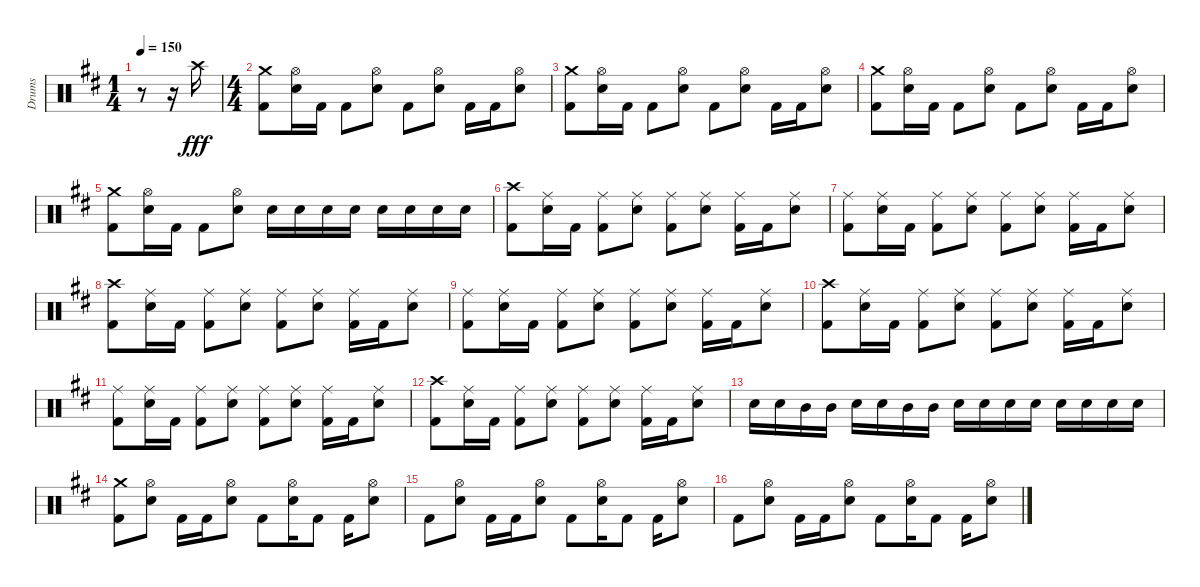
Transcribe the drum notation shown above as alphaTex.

\track ("Drums" "Drums") {instrument percussion}
\staff {score}
\articulation defaults
\ts (1 4)
\tempo 150
\clef neutral
\ks d
r.8{dy fff} r.16 "Crash high (hit)".16 |
\ts (4 4)
("Crash medium (hit)" "Kick (hit) 2").8 ("Hi-Hat (open)" "Electric Snare (hit)").16 "Kick (hit) 2".16 "Kick (hit) 2".8 ("Hi-Hat (open)" "Electric Snare (hit)").8 "Kick (hit) 2".8 ("Hi-Hat (open)" "Electric Snare (hit)").8 "Kick (hit) 2".16 "Kick (hit) 2".16 ("Hi-Hat (open)" "Electric Snare (hit)").8 |
("Crash medium (hit)" "Kick (hit) 2").8 ("Hi-Hat (open)" "Electric Snare (hit)").16 "Kick (hit) 2".16 "Kick (hit) 2".8 ("Hi-Hat (open)" "Electric Snare (hit)").8 "Kick (hit) 2".8 ("Hi-Hat (open)" "Electric Snare (hit)").8 "Kick (hit) 2".16 "Kick (hit) 2".16 ("Hi-Hat (open)" "Electric Snare (hit)").8 |
("Crash medium (hit)" "Kick (hit) 2").8 ("Hi-Hat (open)" "Electric Snare (hit)").16 "Kick (hit) 2".16 "Kick (hit) 2".8 ("Hi-Hat (open)" "Electric Snare (hit)").8 "Kick (hit) 2".8 ("Hi-Hat (open)" "Electric Snare (hit)").8 "Kick (hit) 2".16 "Kick (hit) 2".16 ("Hi-Hat (open)" "Electric Snare (hit)").8 |
("Crash medium (hit)" "Kick (hit) 2").8 ("Hi-Hat (open)" "Electric Snare (hit)").16 "Kick (hit) 2".16 "Kick (hit) 2".8 ("Hi-Hat (open)" "Electric Snare (hit)").8 "Electric Snare (hit)".16 "Electric Snare (hit)".16 "Electric Snare (hit)".16 "Electric Snare (hit)".16 "Electric Snare (hit)".16 "Electric Snare (hit)".16 "Electric Snare (hit)".16 "Electric Snare (hit)".16 |
("Crash high (hit)" "Kick (hit) 2").8 ("Ride (middle)" "Electric Snare (hit)").16 "Kick (hit) 2".16 ("Ride (middle)" "Kick (hit) 2").8 ("Ride (middle)" "Electric Snare (hit)").8 ("Ride (middle)" "Kick (hit) 2").8 ("Ride (middle)" "Electric Snare (hit)").8 ("Ride (middle)" "Kick (hit) 2").16 "Kick (hit) 2".16 ("Ride (middle)" "Electric Snare (hit)").8 |
("Ride (middle)" "Kick (hit) 2").8 ("Ride (middle)" "Electric Snare (hit)").16 "Kick (hit) 2".16 ("Ride (middle)" "Kick (hit) 2").8 ("Ride (middle)" "Electric Snare (hit)").8 ("Ride (middle)" "Kick (hit) 2").8 ("Ride (middle)" "Electric Snare (hit)").8 ("Ride (middle)" "Kick (hit) 2").16 "Kick (hit) 2".16 ("Ride (middle)" "Electric Snare (hit)").8 |
("Crash high (hit)" "Kick (hit) 2").8 ("Ride (middle)" "Electric Snare (hit)").16 "Kick (hit) 2".16 ("Ride (middle)" "Kick (hit) 2").8 ("Ride (middle)" "Electric Snare (hit)").8 ("Ride (middle)" "Kick (hit) 2").8 ("Ride (middle)" "Electric Snare (hit)").8 ("Ride (middle)" "Kick (hit) 2").16 "Kick (hit) 2".16 ("Ride (middle)" "Electric Snare (hit)").8 |
("Ride (middle)" "Kick (hit) 2").8 ("Ride (middle)" "Electric Snare (hit)").16 "Kick (hit) 2".16 ("Ride (middle)" "Kick (hit) 2").8 ("Ride (middle)" "Electric Snare (hit)").8 ("Ride (middle)" "Kick (hit) 2").8 ("Ride (middle)" "Electric Snare (hit)").8 ("Ride (middle)" "Kick (hit) 2").16 "Kick (hit) 2".16 ("Ride (middle)" "Electric Snare (hit)").8 |
("Crash high (hit)" "Kick (hit) 2").8 ("Ride (middle)" "Electric Snare (hit)").16 "Kick (hit) 2".16 ("Ride (middle)" "Kick (hit) 2").8 ("Ride (middle)" "Electric Snare (hit)").8 ("Ride (middle)" "Kick (hit) 2").8 ("Ride (middle)" "Electric Snare (hit)").8 ("Ride (middle)" "Kick (hit) 2").16 "Kick (hit) 2".16 ("Ride (middle)" "Electric Snare (hit)").8 |
("Ride (middle)" "Kick (hit) 2").8 ("Ride (middle)" "Electric Snare (hit)").16 "Kick (hit) 2".16 ("Ride (middle)" "Kick (hit) 2").8 ("Ride (middle)" "Electric Snare (hit)").8 ("Ride (middle)" "Kick (hit) 2").8 ("Ride (middle)" "Electric Snare (hit)").8 ("Ride (middle)" "Kick (hit) 2").16 "Kick (hit) 2".16 ("Ride (middle)" "Electric Snare (hit)").8 |
("Crash high (hit)" "Kick (hit) 2").8 ("Ride (middle)" "Electric Snare (hit)").16 "Kick (hit) 2".16 ("Ride (middle)" "Kick (hit) 2").8 ("Ride (middle)" "Electric Snare (hit)").8 ("Ride (middle)" "Kick (hit) 2").8 ("Ride (middle)" "Electric Snare (hit)").8 ("Ride (middle)" "Kick (hit) 2").16 "Kick (hit) 2".16 ("Ride (middle)" "Electric Snare (hit)").8 |
"Electric Snare (hit)".16 "Electric Snare (hit)".16 "Mid Tom (hit)".16 "Mid Tom (hit)".16 "Electric Snare (hit)".16 "Electric Snare (hit)".16 "Mid Tom (hit)".16 "Mid Tom (hit)".16 "Electric Snare (hit)".16 "Electric Snare (hit)".16 "Electric Snare (hit)".16 "Electric Snare (hit)".16 "Electric Snare (hit)".16 "Electric Snare (hit)".16 "Electric Snare (hit)".16 "Electric Snare (hit)".16 |
("Crash medium (hit)" "Kick (hit) 2").8 ("Hi-Hat (open)" "Electric Snare (hit)").8 "Kick (hit) 2".16 "Kick (hit) 2".16 ("Hi-Hat (open)" "Electric Snare (hit)").8 "Kick (hit) 2".8 ("Hi-Hat (open)" "Electric Snare (hit)").16 "Kick (hit) 2".8 "Kick (hit) 2".16 ("Hi-Hat (open)" "Electric Snare (hit)").8 |
"Kick (hit) 2".8 ("Hi-Hat (open)" "Electric Snare (hit)").8 "Kick (hit) 2".16 "Kick (hit) 2".16 ("Hi-Hat (open)" "Electric Snare (hit)").8 "Kick (hit) 2".8 ("Hi-Hat (open)" "Electric Snare (hit)").16 "Kick (hit) 2".8 "Kick (hit) 2".16 ("Hi-Hat (open)" "Electric Snare (hit)").8 |
"Kick (hit) 2".8 ("Hi-Hat (open)" "Electric Snare (hit)").8 "Kick (hit) 2".16 "Kick (hit) 2".16 ("Hi-Hat (open)" "Electric Snare (hit)").8 "Kick (hit) 2".8 ("Hi-Hat (open)" "Electric Snare (hit)").16 "Kick (hit) 2".8 "Kick (hit) 2".16 ("Hi-Hat (open)" "Electric Snare (hit)").8
